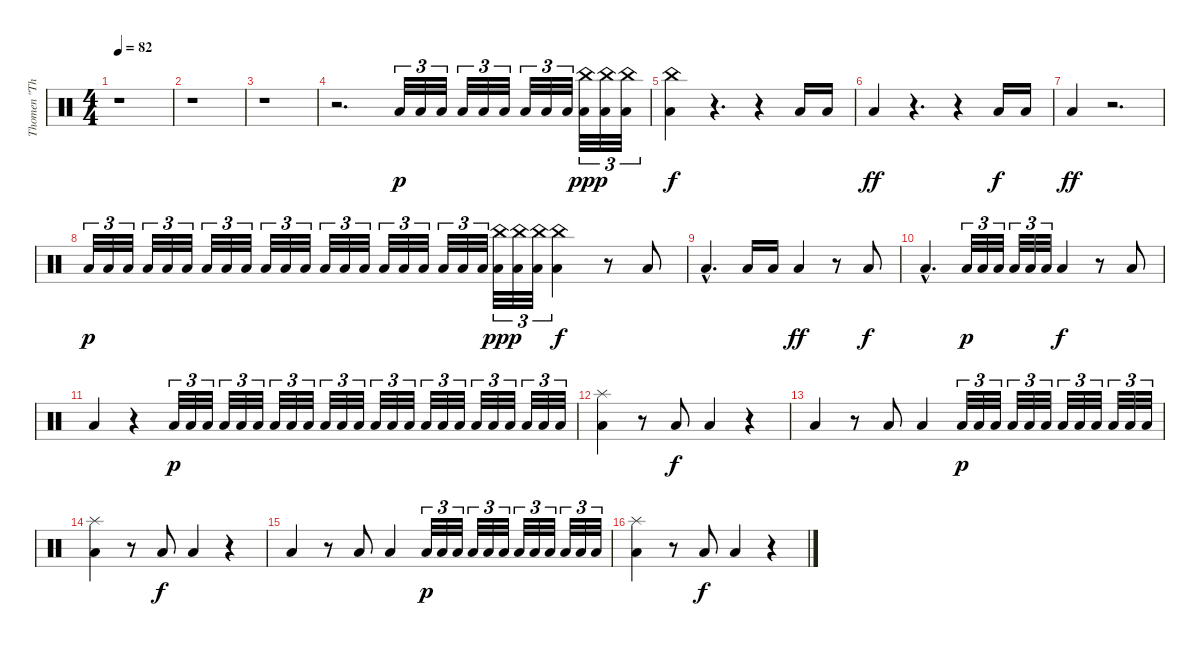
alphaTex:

\track ("Thomen \"The Omen\" Stauch " "Thomen \"Th") {instrument percussion}
\staff {score}
\articulation defaults
\ts (4 4)
\tempo 82
\clef neutral
\ks c
r.1{dy p} |
r.1 |
r.1 |
r.2{d} "Low Floor Tom (hit)".32{tu (3 2)} "Low Floor Tom (hit)".32{tu (3 2)} "Low Floor Tom (hit)".32{tu (3 2)} "Low Floor Tom (hit)".32{tu (3 2)} "Low Floor Tom (hit)".32{tu (3 2)} "Low Floor Tom (hit)".32{tu (3 2)} "Low Floor Tom (hit)".32{tu (3 2)} "Low Floor Tom (hit)".32{tu (3 2)} "Low Floor Tom (hit)".32{tu (3 2)} ("Low Floor Tom (hit)" "China (hit)").32{tu (3 2) dy ppp} ("Low Floor Tom (hit)" "China (hit)").32{tu (3 2)} ("Low Floor Tom (hit)" "China (hit)").32{tu (3 2)} |
("Low Floor Tom (hit)" "China (hit)").4{dy f} r.4{d} r.4 "Low Floor Tom (hit)".16 "Low Floor Tom (hit)".16 |
"Low Floor Tom (hit)".4{dy ff} r.4{d} r.4 "Low Floor Tom (hit)".16{dy f} "Low Floor Tom (hit)".16 |
"Low Floor Tom (hit)".4{dy ff} r.2{d} |
"Low Floor Tom (hit)".32{tu (3 2) dy p} "Low Floor Tom (hit)".32{tu (3 2)} "Low Floor Tom (hit)".32{tu (3 2)} "Low Floor Tom (hit)".32{tu (3 2)} "Low Floor Tom (hit)".32{tu (3 2)} "Low Floor Tom (hit)".32{tu (3 2)} "Low Floor Tom (hit)".32{tu (3 2)} "Low Floor Tom (hit)".32{tu (3 2)} "Low Floor Tom (hit)".32{tu (3 2)} "Low Floor Tom (hit)".32{tu (3 2)} "Low Floor Tom (hit)".32{tu (3 2)} "Low Floor Tom (hit)".32{tu (3 2)} "Low Floor Tom (hit)".32{tu (3 2)} "Low Floor Tom (hit)".32{tu (3 2)} "Low Floor Tom (hit)".32{tu (3 2)} "Low Floor Tom (hit)".32{tu (3 2)} "Low Floor Tom (hit)".32{tu (3 2)} "Low Floor Tom (hit)".32{tu (3 2)} "Low Floor Tom (hit)".32{tu (3 2)} "Low Floor Tom (hit)".32{tu (3 2)} "Low Floor Tom (hit)".32{tu (3 2)} ("Low Floor Tom (hit)" "China (hit)").32{tu (3 2) dy ppp} ("Low Floor Tom (hit)" "China (hit)").32{tu (3 2)} ("Low Floor Tom (hit)" "China (hit)").32{tu (3 2)} ("Low Floor Tom (hit)" "China (hit)").4{dy f} r.8 "Low Floor Tom (hit)".8 |
"Low Floor Tom (hit)"{hac}.4{d} "Low Floor Tom (hit)".16 "Low Floor Tom (hit)".16 "Low Floor Tom (hit)".4{dy ff} r.8 "Low Floor Tom (hit)".8{dy f} |
"Low Floor Tom (hit)"{hac}.4{d} "Low Floor Tom (hit)".32{tu (3 2) dy p} "Low Floor Tom (hit)".32{tu (3 2)} "Low Floor Tom (hit)".32{tu (3 2)} "Low Floor Tom (hit)".32{tu (3 2)} "Low Floor Tom (hit)".32{tu (3 2)} "Low Floor Tom (hit)".32{tu (3 2)} "Low Floor Tom (hit)".4{dy f} r.8 "Low Floor Tom (hit)".8 |
"Low Floor Tom (hit)".4 r.4 "Low Floor Tom (hit)".32{tu (3 2) dy p} "Low Floor Tom (hit)".32{tu (3 2)} "Low Floor Tom (hit)".32{tu (3 2)} "Low Floor Tom (hit)".32{tu (3 2)} "Low Floor Tom (hit)".32{tu (3 2)} "Low Floor Tom (hit)".32{tu (3 2)} "Low Floor Tom (hit)".32{tu (3 2)} "Low Floor Tom (hit)".32{tu (3 2)} "Low Floor Tom (hit)".32{tu (3 2)} "Low Floor Tom (hit)".32{tu (3 2)} "Low Floor Tom (hit)".32{tu (3 2)} "Low Floor Tom (hit)".32{tu (3 2)} "Low Floor Tom (hit)".32{tu (3 2)} "Low Floor Tom (hit)".32{tu (3 2)} "Low Floor Tom (hit)".32{tu (3 2)} "Low Floor Tom (hit)".32{tu (3 2)} "Low Floor Tom (hit)".32{tu (3 2)} "Low Floor Tom (hit)".32{tu (3 2)} "Low Floor Tom (hit)".32{tu (3 2)} "Low Floor Tom (hit)".32{tu (3 2)} "Low Floor Tom (hit)".32{tu (3 2)} "Low Floor Tom (hit)".32{tu (3 2)} "Low Floor Tom (hit)".32{tu (3 2)} "Low Floor Tom (hit)".32{tu (3 2)} |
("Low Floor Tom (hit)" "Splash (hit)").4 r.8 "Low Floor Tom (hit)".8{dy f} "Low Floor Tom (hit)".4 r.4 |
"Low Floor Tom (hit)".4 r.8 "Low Floor Tom (hit)".8 "Low Floor Tom (hit)".4 "Low Floor Tom (hit)".32{tu (3 2) dy p} "Low Floor Tom (hit)".32{tu (3 2)} "Low Floor Tom (hit)".32{tu (3 2)} "Low Floor Tom (hit)".32{tu (3 2)} "Low Floor Tom (hit)".32{tu (3 2)} "Low Floor Tom (hit)".32{tu (3 2)} "Low Floor Tom (hit)".32{tu (3 2)} "Low Floor Tom (hit)".32{tu (3 2)} "Low Floor Tom (hit)".32{tu (3 2)} "Low Floor Tom (hit)".32{tu (3 2)} "Low Floor Tom (hit)".32{tu (3 2)} "Low Floor Tom (hit)".32{tu (3 2)} |
("Low Floor Tom (hit)" "Splash (hit)").4 r.8 "Low Floor Tom (hit)".8{dy f} "Low Floor Tom (hit)".4 r.4 |
"Low Floor Tom (hit)".4 r.8 "Low Floor Tom (hit)".8 "Low Floor Tom (hit)".4 "Low Floor Tom (hit)".32{tu (3 2) dy p} "Low Floor Tom (hit)".32{tu (3 2)} "Low Floor Tom (hit)".32{tu (3 2)} "Low Floor Tom (hit)".32{tu (3 2)} "Low Floor Tom (hit)".32{tu (3 2)} "Low Floor Tom (hit)".32{tu (3 2)} "Low Floor Tom (hit)".32{tu (3 2)} "Low Floor Tom (hit)".32{tu (3 2)} "Low Floor Tom (hit)".32{tu (3 2)} "Low Floor Tom (hit)".32{tu (3 2)} "Low Floor Tom (hit)".32{tu (3 2)} "Low Floor Tom (hit)".32{tu (3 2)} |
("Low Floor Tom (hit)" "Splash (hit)").4 r.8 "Low Floor Tom (hit)".8{dy f} "Low Floor Tom (hit)".4 r.4
